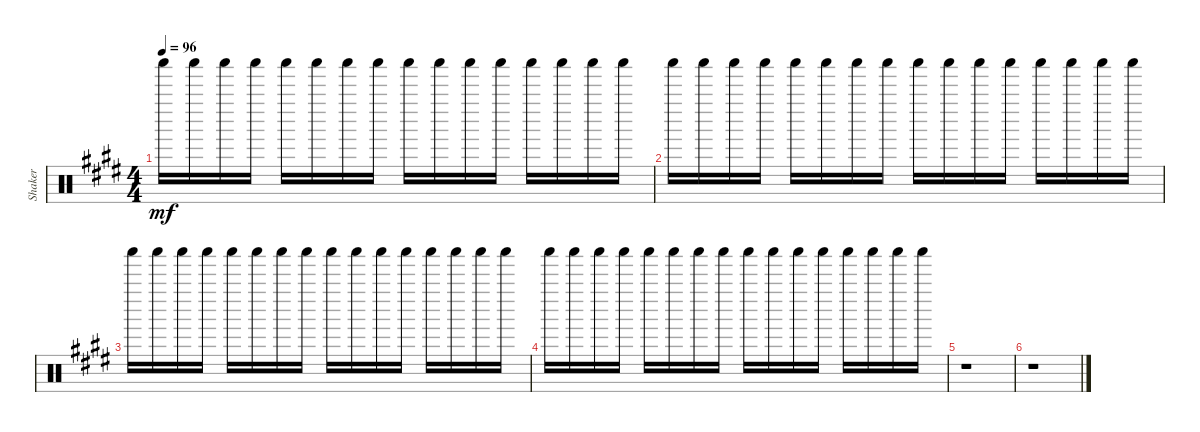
\track ("Shaker" "Shaker") {instrument percussion}
\staff {score}
\articulation defaults
\ts (4 4)
\tempo 96
\clef neutral
\ks e "Shaker (hit)".16{dy mf} "Shaker (hit)".16 "Shaker (hit)".16 "Shaker (hit)".16 "Shaker (hit)".16 "Shaker (hit)".16 "Shaker (hit)".16 "Shaker (hit)".16 "Shaker (hit)".16 "Shaker (hit)".16 "Shaker (hit)".16 "Shaker (hit)".16 "Shaker (hit)".16 "Shaker (hit)".16 "Shaker (hit)".16 "Shaker (hit)".16
|
"Shaker (hit)".16 "Shaker (hit)".16 "Shaker (hit)".16 "Shaker (hit)".16 "Shaker (hit)".16 "Shaker (hit)".16 "Shaker (hit)".16 "Shaker (hit)".16 "Shaker (hit)".16 "Shaker (hit)".16 "Shaker (hit)".16 "Shaker (hit)".16 "Shaker (hit)".16 "Shaker (hit)".16 "Shaker (hit)".16 "Shaker (hit)".16 |
"Shaker (hit)".16 "Shaker (hit)".16 "Shaker (hit)".16 "Shaker (hit)".16 "Shaker (hit)".16 "Shaker (hit)".16 "Shaker (hit)".16 "Shaker (hit)".16 "Shaker (hit)".16 "Shaker (hit)".16 "Shaker (hit)".16 "Shaker (hit)".16 "Shaker (hit)".16 "Shaker (hit)".16 "Shaker (hit)".16 "Shaker (hit)".16 |
"Shaker (hit)".16 "Shaker (hit)".16 "Shaker (hit)".16 "Shaker (hit)".16 "Shaker (hit)".16 "Shaker (hit)".16 "Shaker (hit)".16 "Shaker (hit)".16 "Shaker (hit)".16 "Shaker (hit)".16 "Shaker (hit)".16 "Shaker (hit)".16 "Shaker (hit)".16 "Shaker (hit)".16 "Shaker (hit)".16 "Shaker (hit)".16 |
r.1 |
r.1
